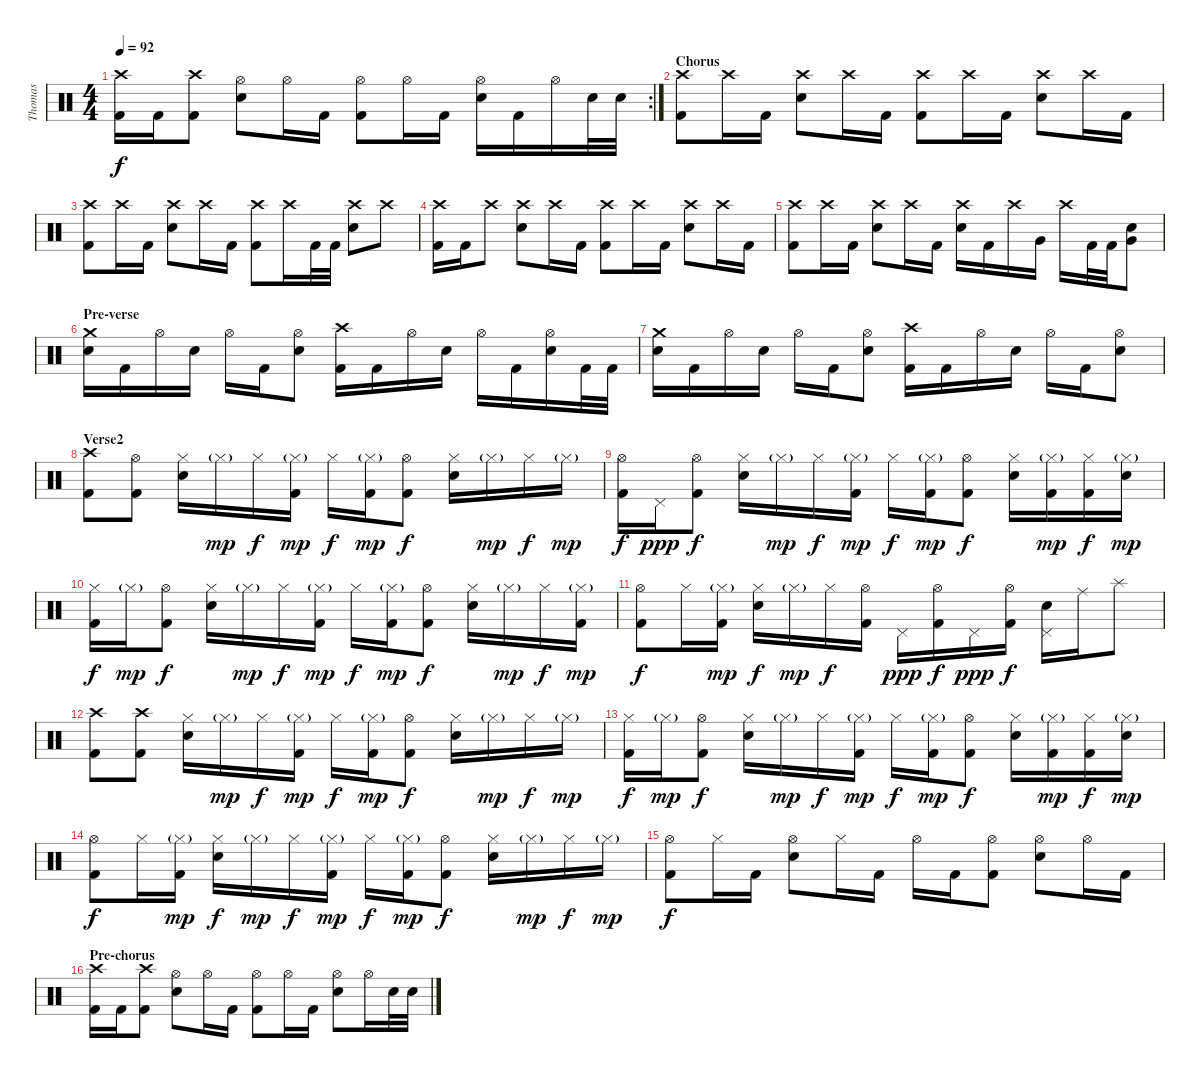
\track ("Thomas" "Thomas") {instrument percussion}
\staff {score}
\articulation defaults
\rc 2
\ts (4 4)
\tempo 92
\clef neutral
\ks c
("Crash high (hit)" "Kick (hit) 2").16{dy f} "Kick (hit) 2".16 ("Crash high (hit)" "Kick (hit) 2").8 ("Hi-Hat (open)" "Electric Snare (hit)").8 "Hi-Hat (open)".16 "Kick (hit) 2".16 ("Hi-Hat (open)" "Kick (hit) 2").8 "Hi-Hat (open)".16 "Kick (hit) 2".16 ("Hi-Hat (open)" "Electric Snare (hit)").16 "Kick (hit) 2".16 "Hi-Hat (open)".16 "Electric Snare (hit)".32 "Electric Snare (hit)".32 |
\section ("" "Chorus")
("Crash high (hit)" "Kick (hit) 2").8 "Crash high (hit)".16 "Kick (hit) 2".16 ("Crash high (hit)" "Electric Snare (hit)").8 "Crash high (hit)".16 "Kick (hit) 2".16 ("Crash high (hit)" "Kick (hit) 2").8 "Crash high (hit)".16 "Kick (hit) 2".16 ("Crash high (hit)" "Electric Snare (hit)").8 "Crash high (hit)".16 "Kick (hit) 2".16 |
("Crash high (hit)" "Kick (hit) 2").8 "Crash high (hit)".16 "Kick (hit) 2".16 ("Crash high (hit)" "Electric Snare (hit)").8 "Crash high (hit)".16 "Kick (hit) 2".16 ("Crash high (hit)" "Kick (hit) 2").8 "Crash high (hit)".16 "Kick (hit) 2".32 "Kick (hit) 2".32 ("Crash high (hit)" "Electric Snare (hit)").8 "Crash high (hit)".8 |
("Crash high (hit)" "Kick (hit) 2").16 "Kick (hit) 2".16 "Crash high (hit)".8 ("Crash high (hit)" "Electric Snare (hit)").8 "Crash high (hit)".16 "Kick (hit) 2".16 ("Crash high (hit)" "Kick (hit) 2").8 "Crash high (hit)".16 "Kick (hit) 2".16 ("Crash high (hit)" "Electric Snare (hit)").8 "Crash high (hit)".16 "Kick (hit) 2".16 |
("Crash high (hit)" "Kick (hit) 2").8 "Crash high (hit)".16 "Kick (hit) 2".16 ("Crash high (hit)" "Electric Snare (hit)").8 "Crash high (hit)".16 "Kick (hit) 2".16 ("Crash high (hit)" "Electric Snare (hit)").16 "Kick (hit) 2".16 "Crash high (hit)".16 "Very Low Tom (hit)".16 "Crash high (hit)".16 "Kick (hit) 2".32 "Kick (hit) 2".32 ("Very Low Tom (hit)" "Electric Snare (hit)").8 |
\section ("" "Pre-verse")
("Crash medium (hit)" "Electric Snare (hit)").16 "Kick (hit) 2".16 "Hi-Hat (open)".16 "Electric Snare (hit)".16 "Hi-Hat (open)".16 "Kick (hit) 2".16 ("Hi-Hat (open)" "Electric Snare (hit)").8 ("Crash high (hit)" "Kick (hit) 2").16 "Kick (hit) 2".16 "Hi-Hat (open)".16 "Electric Snare (hit)".16 "Hi-Hat (open)".16 "Kick (hit) 2".16 ("Hi-Hat (open)" "Electric Snare (hit)").16 "Kick (hit) 2".32 "Kick (hit) 2".32 |
("Crash medium (hit)" "Electric Snare (hit)").16 "Kick (hit) 2".16 "Hi-Hat (open)".16 "Electric Snare (hit)".16 "Hi-Hat (open)".16 "Kick (hit) 2".16 ("Hi-Hat (open)" "Electric Snare (hit)").8 ("Crash high (hit)" "Kick (hit) 2").16 "Kick (hit) 2".16 "Hi-Hat (open)".16 "Electric Snare (hit)".16 "Hi-Hat (open)".16 "Kick (hit) 2".16 ("Hi-Hat (open)" "Electric Snare (hit)").8 |
\section ("" "Verse2")
("Crash high (hit)" "Kick (hit) 2").8 ("Hi-Hat (open)" "Kick (hit) 2").8 ("Hi-Hat (closed)" "Electric Snare (hit)").16 "Hi-Hat (closed)"{g}.16{dy mp} "Hi-Hat (closed)".16{dy f} ("Hi-Hat (closed)"{g} "Kick (hit) 2").16{dy mp} "Hi-Hat (closed)".16{dy f} ("Hi-Hat (closed)"{g} "Kick (hit) 2").16{dy mp} ("Hi-Hat (open)" "Kick (hit) 2").8{dy f} ("Hi-Hat (closed)" "Electric Snare (hit)").16 "Hi-Hat (closed)"{g}.16{dy mp} "Hi-Hat (closed)".16{dy f} "Hi-Hat (closed)"{g}.16{dy mp} |
("Hi-Hat (open)" "Kick (hit) 2").16{dy f} "Pedal Hi-Hat (hit)".16{dy ppp} ("Hi-Hat (open)" "Kick (hit) 2").8{dy f} ("Hi-Hat (closed)" "Electric Snare (hit)").16 "Hi-Hat (closed)"{g}.16{dy mp} "Hi-Hat (closed)".16{dy f} ("Hi-Hat (closed)"{g} "Kick (hit) 2").16{dy mp} "Hi-Hat (closed)".16{dy f} ("Hi-Hat (closed)"{g} "Kick (hit) 2").16{dy mp} ("Hi-Hat (open)" "Kick (hit) 2").8{dy f} ("Hi-Hat (closed)" "Electric Snare (hit)").16 ("Hi-Hat (closed)"{g} "Kick (hit) 2").16{dy mp} ("Hi-Hat (closed)" "Kick (hit) 2").16{dy f} ("Hi-Hat (closed)"{g} "Electric Snare (hit)").16{dy mp} |
("Hi-Hat (closed)" "Kick (hit) 2").16{dy f} "Hi-Hat (closed)"{g}.16{dy mp} ("Hi-Hat (open)" "Kick (hit) 2").8{dy f} ("Hi-Hat (closed)" "Electric Snare (hit)").16 "Hi-Hat (closed)"{g}.16{dy mp} "Hi-Hat (closed)".16{dy f} ("Hi-Hat (closed)"{g} "Kick (hit) 2").16{dy mp} "Hi-Hat (closed)".16{dy f} ("Hi-Hat (closed)"{g} "Kick (hit) 2").16{dy mp} ("Hi-Hat (open)" "Kick (hit) 2").8{dy f} ("Hi-Hat (closed)" "Electric Snare (hit)").16 "Hi-Hat (closed)"{g}.16{dy mp} "Hi-Hat (closed)".16{dy f} ("Hi-Hat (closed)"{g} "Kick (hit) 2").16{dy mp} |
("Hi-Hat (open)" "Kick (hit) 2").8{dy f} "Hi-Hat (closed)".16 ("Hi-Hat (closed)"{g} "Kick (hit) 2").16{dy mp} ("Hi-Hat (closed)" "Electric Snare (hit)").16{dy f} "Hi-Hat (closed)"{g}.16{dy mp} "Hi-Hat (closed)".16{dy f} ("Hi-Hat (open)" "Kick (hit) 2").16 "Pedal Hi-Hat (hit)".16{dy ppp} ("Hi-Hat (open)" "Kick (hit) 2").16{dy f} "Pedal Hi-Hat (hit)".16{dy ppp} ("Hi-Hat (open)" "Kick (hit) 2").16{dy f} ("Pedal Hi-Hat (hit)" "Electric Snare (hit)").16 "Ride (middle)".16 "Splash (hit)".8 |
("Crash high (hit)" "Kick (hit) 2").8 ("Crash high (hit)" "Kick (hit) 2").8 ("Hi-Hat (closed)" "Electric Snare (hit)").16 "Hi-Hat (closed)"{g}.16{dy mp} "Hi-Hat (closed)".16{dy f} ("Hi-Hat (closed)"{g} "Kick (hit) 2").16{dy mp} "Hi-Hat (closed)".16{dy f} ("Hi-Hat (closed)"{g} "Kick (hit) 2").16{dy mp} ("Hi-Hat (open)" "Kick (hit) 2").8{dy f} ("Hi-Hat (closed)" "Electric Snare (hit)").16 "Hi-Hat (closed)"{g}.16{dy mp} "Hi-Hat (closed)".16{dy f} "Hi-Hat (closed)"{g}.16{dy mp} |
("Hi-Hat (closed)" "Kick (hit) 2").16{dy f} "Hi-Hat (closed)"{g}.16{dy mp} ("Hi-Hat (open)" "Kick (hit) 2").8{dy f} ("Hi-Hat (closed)" "Electric Snare (hit)").16 "Hi-Hat (closed)"{g}.16{dy mp} "Hi-Hat (closed)".16{dy f} ("Hi-Hat (closed)"{g} "Kick (hit) 2").16{dy mp} "Hi-Hat (closed)".16{dy f} ("Hi-Hat (closed)"{g} "Kick (hit) 2").16{dy mp} ("Hi-Hat (open)" "Kick (hit) 2").8{dy f} ("Hi-Hat (closed)" "Electric Snare (hit)").16 ("Hi-Hat (closed)"{g} "Kick (hit) 2").16{dy mp} ("Hi-Hat (closed)" "Kick (hit) 2").16{dy f} ("Hi-Hat (closed)"{g} "Electric Snare (hit)").16{dy mp} |
("Hi-Hat (open)" "Kick (hit) 2").8{dy f} "Hi-Hat (closed)".16 ("Hi-Hat (closed)"{g} "Kick (hit) 2").16{dy mp} ("Hi-Hat (closed)" "Electric Snare (hit)").16{dy f} "Hi-Hat (closed)"{g}.16{dy mp} "Hi-Hat (closed)".16{dy f} ("Hi-Hat (closed)"{g} "Kick (hit) 2").16{dy mp} "Hi-Hat (closed)".16{dy f} ("Hi-Hat (closed)"{g} "Kick (hit) 2").16{dy mp} ("Hi-Hat (open)" "Kick (hit) 2").8{dy f} ("Hi-Hat (closed)" "Electric Snare (hit)").16 "Hi-Hat (closed)"{g}.16{dy mp} "Hi-Hat (closed)".16{dy f} "Hi-Hat (closed)"{g}.16{dy mp} |
("Hi-Hat (open)" "Kick (hit) 2").8{dy f} "Hi-Hat (closed)".16 "Kick (hit) 2".16 ("Hi-Hat (open)" "Electric Snare (hit)").8 "Hi-Hat (closed)".16 "Kick (hit) 2".16 "Hi-Hat (open)".16 "Kick (hit) 2".16 ("Hi-Hat (open)" "Kick (hit) 2").8 ("Hi-Hat (open)" "Electric Snare (hit)").8 "Hi-Hat (open)".16 "Kick (hit) 2".16 |
\section ("" "Pre-chorus")
("Crash high (hit)" "Kick (hit) 2").16 "Kick (hit) 2".16 ("Crash high (hit)" "Kick (hit) 2").8 ("Hi-Hat (open)" "Electric Snare (hit)").8 "Hi-Hat (open)".16 "Kick (hit) 2".16 ("Hi-Hat (open)" "Kick (hit) 2").8 "Hi-Hat (open)".16 "Kick (hit) 2".16 ("Hi-Hat (open)" "Electric Snare (hit)").8 "Hi-Hat (open)".16 "Electric Snare (hit)".32 "Electric Snare (hit)".32
